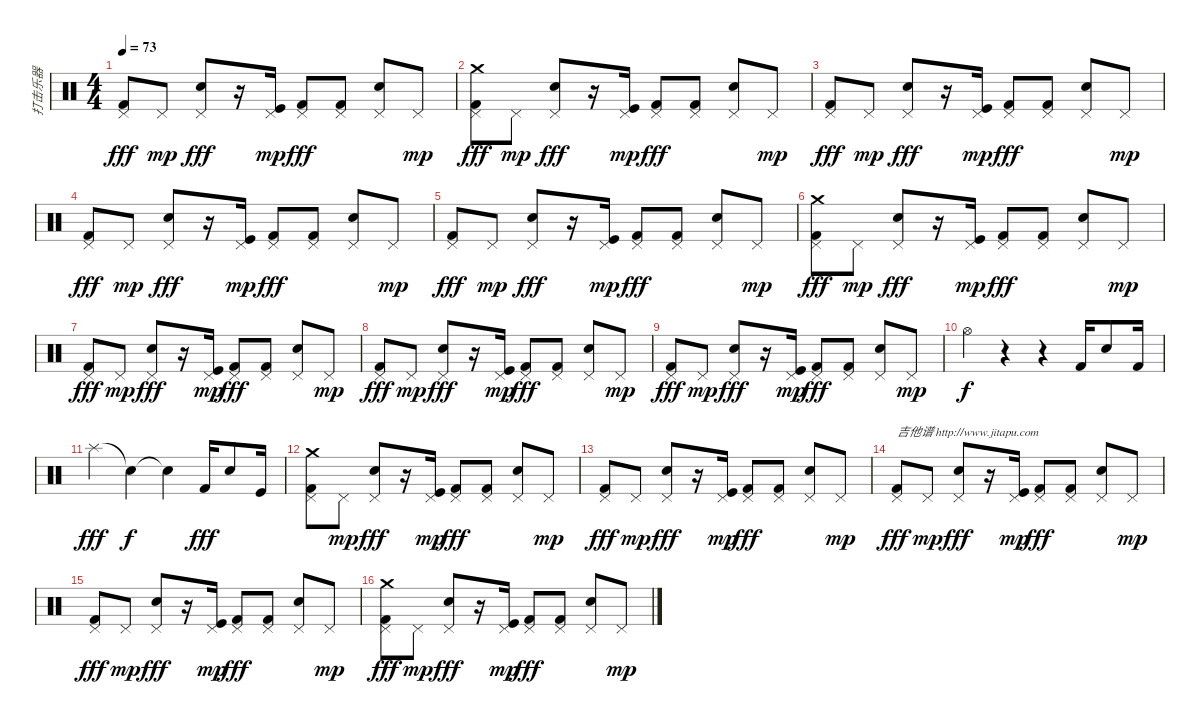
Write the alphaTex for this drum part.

\track ("打击乐器" "打击乐器") {instrument percussion}
\staff {score}
\articulation defaults
\ts (4 4)
\tempo 73
\clef neutral
\ks c
("Pedal Hi-Hat (hit)" "Kick (hit) 2").8{dy fff} "Pedal Hi-Hat (hit)".8{dy mp} ("Pedal Hi-Hat (hit)" "Electric Snare (hit)").8{dy fff} r.16 ("Pedal Hi-Hat (hit)" "Kick (hit)").16{dy mp} ("Pedal Hi-Hat (hit)" "Kick (hit) 2").8{dy fff} ("Pedal Hi-Hat (hit)" "Kick (hit) 2").8 ("Pedal Hi-Hat (hit)" "Electric Snare (hit)").8 "Pedal Hi-Hat (hit)".8{dy mp} |
("Pedal Hi-Hat (hit)" "Kick (hit) 2" "Crash medium (hit)").8{dy fff} "Pedal Hi-Hat (hit)".8{dy mp} ("Pedal Hi-Hat (hit)" "Electric Snare (hit)").8{dy fff} r.16 ("Pedal Hi-Hat (hit)" "Kick (hit)").16{dy mp} ("Pedal Hi-Hat (hit)" "Kick (hit) 2").8{dy fff} ("Pedal Hi-Hat (hit)" "Kick (hit) 2").8 ("Pedal Hi-Hat (hit)" "Electric Snare (hit)").8 "Pedal Hi-Hat (hit)".8{dy mp} |
("Pedal Hi-Hat (hit)" "Kick (hit) 2").8{dy fff} "Pedal Hi-Hat (hit)".8{dy mp} ("Pedal Hi-Hat (hit)" "Electric Snare (hit)").8{dy fff} r.16 ("Pedal Hi-Hat (hit)" "Kick (hit)").16{dy mp} ("Pedal Hi-Hat (hit)" "Kick (hit) 2").8{dy fff} ("Pedal Hi-Hat (hit)" "Kick (hit) 2").8 ("Pedal Hi-Hat (hit)" "Electric Snare (hit)").8 "Pedal Hi-Hat (hit)".8{dy mp} |
("Pedal Hi-Hat (hit)" "Kick (hit) 2").8{dy fff} "Pedal Hi-Hat (hit)".8{dy mp} ("Pedal Hi-Hat (hit)" "Electric Snare (hit)").8{dy fff} r.16 ("Pedal Hi-Hat (hit)" "Kick (hit)").16{dy mp} ("Pedal Hi-Hat (hit)" "Kick (hit) 2").8{dy fff} ("Pedal Hi-Hat (hit)" "Kick (hit) 2").8 ("Pedal Hi-Hat (hit)" "Electric Snare (hit)").8 "Pedal Hi-Hat (hit)".8{dy mp} |
("Pedal Hi-Hat (hit)" "Kick (hit) 2").8{dy fff} "Pedal Hi-Hat (hit)".8{dy mp} ("Pedal Hi-Hat (hit)" "Electric Snare (hit)").8{dy fff} r.16 ("Pedal Hi-Hat (hit)" "Kick (hit)").16{dy mp} ("Pedal Hi-Hat (hit)" "Kick (hit) 2").8{dy fff} ("Pedal Hi-Hat (hit)" "Kick (hit) 2").8 ("Pedal Hi-Hat (hit)" "Electric Snare (hit)").8 "Pedal Hi-Hat (hit)".8{dy mp} |
("Pedal Hi-Hat (hit)" "Kick (hit) 2" "Crash medium (hit)").8{dy fff} "Pedal Hi-Hat (hit)".8{dy mp} ("Pedal Hi-Hat (hit)" "Electric Snare (hit)").8{dy fff} r.16 ("Pedal Hi-Hat (hit)" "Kick (hit)").16{dy mp} ("Pedal Hi-Hat (hit)" "Kick (hit) 2").8{dy fff} ("Pedal Hi-Hat (hit)" "Kick (hit) 2").8 ("Pedal Hi-Hat (hit)" "Electric Snare (hit)").8 "Pedal Hi-Hat (hit)".8{dy mp} |
("Pedal Hi-Hat (hit)" "Kick (hit) 2").8{dy fff} "Pedal Hi-Hat (hit)".8{dy mp} ("Pedal Hi-Hat (hit)" "Electric Snare (hit)").8{dy fff} r.16 ("Pedal Hi-Hat (hit)" "Kick (hit)").16{dy mp} ("Pedal Hi-Hat (hit)" "Kick (hit) 2").8{dy fff} ("Pedal Hi-Hat (hit)" "Kick (hit) 2").8 ("Pedal Hi-Hat (hit)" "Electric Snare (hit)").8 "Pedal Hi-Hat (hit)".8{dy mp} |
("Pedal Hi-Hat (hit)" "Kick (hit) 2").8{dy fff} "Pedal Hi-Hat (hit)".8{dy mp} ("Pedal Hi-Hat (hit)" "Electric Snare (hit)").8{dy fff} r.16 ("Pedal Hi-Hat (hit)" "Kick (hit)").16{dy mp} ("Pedal Hi-Hat (hit)" "Kick (hit) 2").8{dy fff} ("Pedal Hi-Hat (hit)" "Kick (hit) 2").8 ("Pedal Hi-Hat (hit)" "Electric Snare (hit)").8 "Pedal Hi-Hat (hit)".8{dy mp} |
("Pedal Hi-Hat (hit)" "Kick (hit) 2").8{dy fff} "Pedal Hi-Hat (hit)".8{dy mp} ("Pedal Hi-Hat (hit)" "Electric Snare (hit)").8{dy fff} r.16 ("Pedal Hi-Hat (hit)" "Kick (hit)").16{dy mp} ("Pedal Hi-Hat (hit)" "Kick (hit) 2").8{dy fff} ("Pedal Hi-Hat (hit)" "Kick (hit) 2").8 ("Pedal Hi-Hat (hit)" "Electric Snare (hit)").8 "Pedal Hi-Hat (hit)".8{dy mp} |
"Hi-Hat (open)".4{dy f} r.4 r.4 "Kick (hit) 2".16 "Electric Snare (hit)".8 "Kick (hit) 2".16 |
"Splash (hit)".4{dy fff} "Snare (hit)"{t}.4{dy f} "Snare (hit)"{t}.4 "Kick (hit) 2".16{dy fff} "Electric Snare (hit)".8 "Kick (hit)".16 |
("Pedal Hi-Hat (hit)" "Kick (hit) 2" "Crash medium (hit)").8 "Pedal Hi-Hat (hit)".8{dy mp} ("Pedal Hi-Hat (hit)" "Electric Snare (hit)").8{dy fff} r.16 ("Pedal Hi-Hat (hit)" "Kick (hit)").16{dy mp} ("Pedal Hi-Hat (hit)" "Kick (hit) 2").8{dy fff} ("Pedal Hi-Hat (hit)" "Kick (hit) 2").8 ("Pedal Hi-Hat (hit)" "Electric Snare (hit)").8 "Pedal Hi-Hat (hit)".8{dy mp} |
("Pedal Hi-Hat (hit)" "Kick (hit) 2").8{dy fff} "Pedal Hi-Hat (hit)".8{dy mp} ("Pedal Hi-Hat (hit)" "Electric Snare (hit)").8{dy fff} r.16 ("Pedal Hi-Hat (hit)" "Kick (hit)").16{dy mp} ("Pedal Hi-Hat (hit)" "Kick (hit) 2").8{dy fff} ("Pedal Hi-Hat (hit)" "Kick (hit) 2").8 ("Pedal Hi-Hat (hit)" "Electric Snare (hit)").8 "Pedal Hi-Hat (hit)".8{dy mp} |
("Pedal Hi-Hat (hit)" "Kick (hit) 2").8{txt "吉他谱 http://www.jitapu.com" dy fff} "Pedal Hi-Hat (hit)".8{dy mp} ("Pedal Hi-Hat (hit)" "Electric Snare (hit)").8{dy fff} r.16 ("Pedal Hi-Hat (hit)" "Kick (hit)").16{dy mp} ("Pedal Hi-Hat (hit)" "Kick (hit) 2").8{dy fff} ("Pedal Hi-Hat (hit)" "Kick (hit) 2").8 ("Pedal Hi-Hat (hit)" "Electric Snare (hit)").8 "Pedal Hi-Hat (hit)".8{dy mp} |
("Pedal Hi-Hat (hit)" "Kick (hit) 2").8{dy fff} "Pedal Hi-Hat (hit)".8{dy mp} ("Pedal Hi-Hat (hit)" "Electric Snare (hit)").8{dy fff} r.16 ("Pedal Hi-Hat (hit)" "Kick (hit)").16{dy mp} ("Pedal Hi-Hat (hit)" "Kick (hit) 2").8{dy fff} ("Pedal Hi-Hat (hit)" "Kick (hit) 2").8 ("Pedal Hi-Hat (hit)" "Electric Snare (hit)").8 "Pedal Hi-Hat (hit)".8{dy mp} |
("Pedal Hi-Hat (hit)" "Kick (hit) 2" "Crash medium (hit)").8{dy fff} "Pedal Hi-Hat (hit)".8{dy mp} ("Pedal Hi-Hat (hit)" "Electric Snare (hit)").8{dy fff} r.16 ("Pedal Hi-Hat (hit)" "Kick (hit)").16{dy mp} ("Pedal Hi-Hat (hit)" "Kick (hit) 2").8{dy fff} ("Pedal Hi-Hat (hit)" "Kick (hit) 2").8 ("Pedal Hi-Hat (hit)" "Electric Snare (hit)").8 "Pedal Hi-Hat (hit)".8{dy mp}
